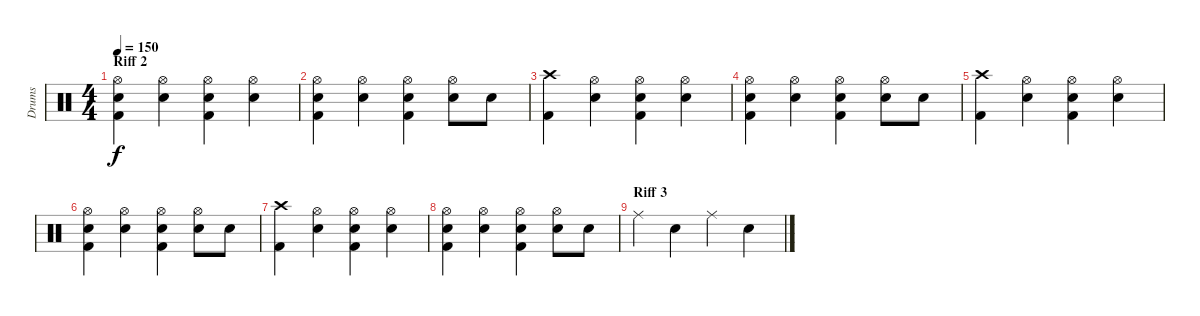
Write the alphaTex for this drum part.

\track ("Drums" "Drums") {instrument percussion}
\staff {score}
\articulation defaults
\ts (4 4)
\section ("" "Riff 2")
\tempo 150
\clef neutral
\ks c
("Hi-Hat (open)" "Snare (hit) 2" "Kick (hit) 2").4{dy f} ("Hi-Hat (open)" "Snare (hit) 2").4 ("Hi-Hat (open)" "Snare (hit) 2" "Kick (hit) 2").4 ("Hi-Hat (open)" "Snare (hit) 2").4 |
("Hi-Hat (open)" "Snare (hit) 2" "Kick (hit) 2").4 ("Hi-Hat (open)" "Snare (hit) 2").4 ("Hi-Hat (open)" "Snare (hit) 2" "Kick (hit) 2").4 ("Hi-Hat (open)" "Snare (hit) 2").8 "Snare (hit) 2".8 |
("Crash high (hit)" "Kick (hit) 2").4 ("Hi-Hat (open)" "Snare (hit) 2").4 ("Hi-Hat (open)" "Snare (hit) 2" "Kick (hit) 2").4 ("Hi-Hat (open)" "Snare (hit) 2").4 |
("Hi-Hat (open)" "Snare (hit) 2" "Kick (hit) 2").4 ("Hi-Hat (open)" "Snare (hit) 2").4 ("Hi-Hat (open)" "Snare (hit) 2" "Kick (hit) 2").4 ("Hi-Hat (open)" "Snare (hit) 2").8 "Snare (hit) 2".8 |
("Crash high (hit)" "Kick (hit) 2").4 ("Hi-Hat (open)" "Snare (hit) 2").4 ("Hi-Hat (open)" "Snare (hit) 2" "Kick (hit) 2").4 ("Hi-Hat (open)" "Snare (hit) 2").4 |
("Hi-Hat (open)" "Snare (hit) 2" "Kick (hit) 2").4 ("Hi-Hat (open)" "Snare (hit) 2").4 ("Hi-Hat (open)" "Snare (hit) 2" "Kick (hit) 2").4 ("Hi-Hat (open)" "Snare (hit) 2").8 "Snare (hit) 2".8 |
("Crash high (hit)" "Kick (hit) 2").4 ("Hi-Hat (open)" "Snare (hit) 2").4 ("Hi-Hat (open)" "Snare (hit) 2" "Kick (hit) 2").4 ("Hi-Hat (open)" "Snare (hit) 2").4 |
("Hi-Hat (open)" "Snare (hit) 2" "Kick (hit) 2").4 ("Hi-Hat (open)" "Snare (hit) 2").4 ("Hi-Hat (open)" "Snare (hit) 2" "Kick (hit) 2").4 ("Hi-Hat (open)" "Snare (hit) 2").8 "Snare (hit) 2".8 |
\section ("" "Riff 3")
"Ride (middle)".4 "Snare (hit) 2".4 "Ride (middle)".4 "Snare (hit) 2".4
